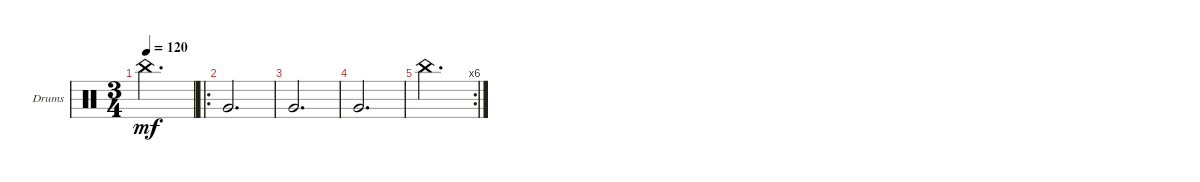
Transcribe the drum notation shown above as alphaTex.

\defaultSystemsLayout 4
\bracketExtendMode groupsimilarinstruments
\firstSystemTrackNameOrientation horizontal
\otherSystemsTrackNameOrientation horizontal
\track ("Drumkit" "Drums") {instrument percussion}
\staff {score}
\articulation defaults
\ts (3 4)
\tempo 120
\clef neutral
\ks c "China (hit)".2{d dy mf}
|
\ro "Very Low Tom (hit)".2{d}
|
"Very Low Tom (hit)".2{d} |
"Very Low Tom (hit)".2{d} |
\rc 6 "China (hit)".2{d}
